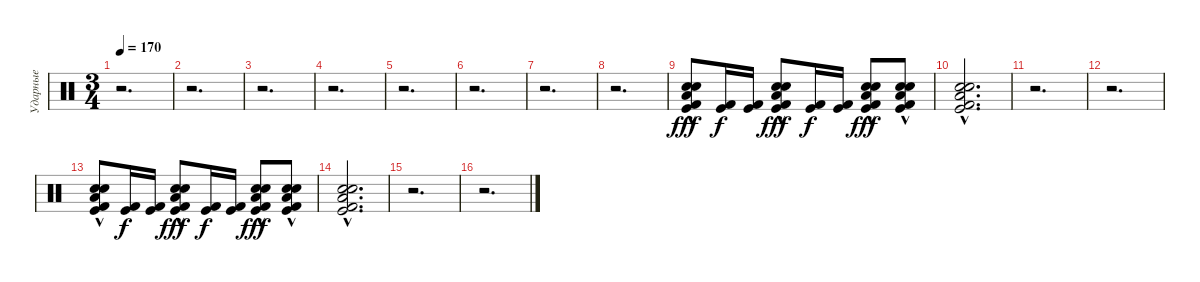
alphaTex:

\track ("Ударные" "Ударные") {instrument percussion}
\staff {score}
\articulation defaults
\ts (3 4)
\tempo 170
\clef neutral
\ks c
r.2{d dy fff} |
r.2{d} |
r.2{d} |
r.2{d} |
r.2{d} |
r.2{d} |
r.2{d} |
r.2{d} |
("Kick (hit)" "Kick (hit) 2" "Snare (hit) 2" "Electric Snare (hit)" "Low Floor Tom (hit)"{hac}).8 ("Kick (hit)" "Kick (hit) 2").16{dy f} ("Kick (hit)" "Kick (hit) 2").16 ("Kick (hit)" "Kick (hit) 2" "Snare (hit) 2"{hac} "Electric Snare (hit)"{hac} "Low Floor Tom (hit)"{hac}).8{dy fff} ("Kick (hit)" "Kick (hit) 2").16{dy f} ("Kick (hit)" "Kick (hit) 2").16 ("Kick (hit)" "Kick (hit) 2" "Snare (hit) 2"{hac} "Electric Snare (hit)"{hac} "Low Floor Tom (hit)"{hac}).8{dy fff} ("Kick (hit)" "Kick (hit) 2" "Snare (hit) 2"{hac} "Electric Snare (hit)"{hac} "Low Floor Tom (hit)"{hac}).8 |
("Kick (hit)" "Kick (hit) 2" "Snare (hit) 2"{hac} "Electric Snare (hit)"{hac} "Low Floor Tom (hit)"{hac}).2{d} |
r.2{d} |
r.2{d} |
("Kick (hit)" "Kick (hit) 2" "Snare (hit) 2" "Electric Snare (hit)" "Low Floor Tom (hit)"{hac}).8 ("Kick (hit)" "Kick (hit) 2").16{dy f} ("Kick (hit)" "Kick (hit) 2").16 ("Kick (hit)" "Kick (hit) 2" "Snare (hit) 2"{hac} "Electric Snare (hit)"{hac} "Low Floor Tom (hit)"{hac}).8{dy fff} ("Kick (hit)" "Kick (hit) 2").16{dy f} ("Kick (hit)" "Kick (hit) 2").16 ("Kick (hit)" "Kick (hit) 2" "Snare (hit) 2"{hac} "Electric Snare (hit)"{hac} "Low Floor Tom (hit)"{hac}).8{dy fff} ("Kick (hit)" "Kick (hit) 2" "Snare (hit) 2"{hac} "Electric Snare (hit)"{hac} "Low Floor Tom (hit)"{hac}).8 |
("Kick (hit)" "Kick (hit) 2" "Snare (hit) 2"{hac} "Electric Snare (hit)"{hac} "Low Floor Tom (hit)"{hac}).2{d} |
r.2{d} |
r.2{d}
